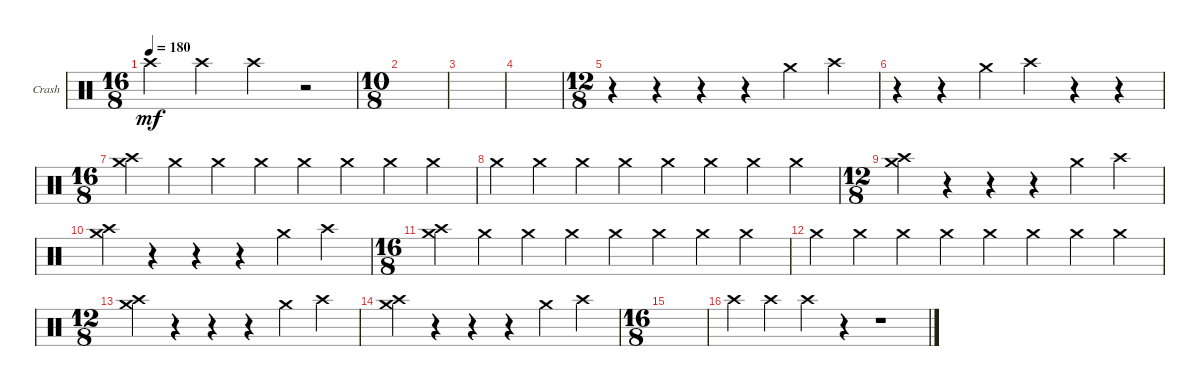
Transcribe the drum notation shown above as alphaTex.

\defaultSystemsLayout 4
\bracketExtendMode groupsimilarinstruments
\firstSystemTrackNameOrientation horizontal
\otherSystemsTrackNameOrientation horizontal
\track ("Crashes" "Crash") {instrument percussion}
\staff {score}
\articulation defaults
\ts (16 8)
\tempo 180
\clef neutral
\ks c "Crash high (hit)".2{dy mf} "Crash high (hit)".2 "Crash high (hit)".2
r.2 |
\ts (10 8)
|
|
|
\ts (12 8)
r.4 r.4 r.4 r.4 "Crash medium (hit)".4 "Crash high (hit)".4 |
r.4 r.4 "Crash medium (hit)".4 "Crash high (hit)".4 r.4 r.4 |
\ts (16 8)
("Crash high (hit)" "Crash medium (hit)").4 "Crash medium (hit)".4 "Crash medium (hit)".4 "Crash medium (hit)".4 "Crash medium (hit)".4 "Crash medium (hit)".4 "Crash medium (hit)".4 "Crash medium (hit)".4 |
"Crash medium (hit)".4 "Crash medium (hit)".4 "Crash medium (hit)".4 "Crash medium (hit)".4 "Crash medium (hit)".4 "Crash medium (hit)".4 "Crash medium (hit)".4 "Crash medium (hit)".4 |
\ts (12 8)
("Crash high (hit)" "Crash medium (hit)").4 r.4 r.4 r.4 "Crash medium (hit)".4 "Crash high (hit)".4 |
("Crash medium (hit)" "Crash high (hit)").4 r.4 r.4 r.4 "Crash medium (hit)".4 "Crash high (hit)".4 |
\ts (16 8)
("Crash high (hit)" "Crash medium (hit)").4 "Crash medium (hit)".4 "Crash medium (hit)".4 "Crash medium (hit)".4 "Crash medium (hit)".4 "Crash medium (hit)".4 "Crash medium (hit)".4 "Crash medium (hit)".4 |
"Crash medium (hit)".4 "Crash medium (hit)".4 "Crash medium (hit)".4 "Crash medium (hit)".4 "Crash medium (hit)".4 "Crash medium (hit)".4 "Crash medium (hit)".4 "Crash medium (hit)".4 |
\ts (12 8)
("Crash medium (hit)" "Crash high (hit)").4 r.4 r.4 r.4 "Crash medium (hit)".4 "Crash high (hit)".4 |
("Crash medium (hit)" "Crash high (hit)").4 r.4 r.4 r.4 "Crash medium (hit)".4 "Crash high (hit)".4 |
\ts (16 8)
|
"Crash high (hit)".4 "Crash high (hit)".4 "Crash high (hit)".4 r.4 r.1
